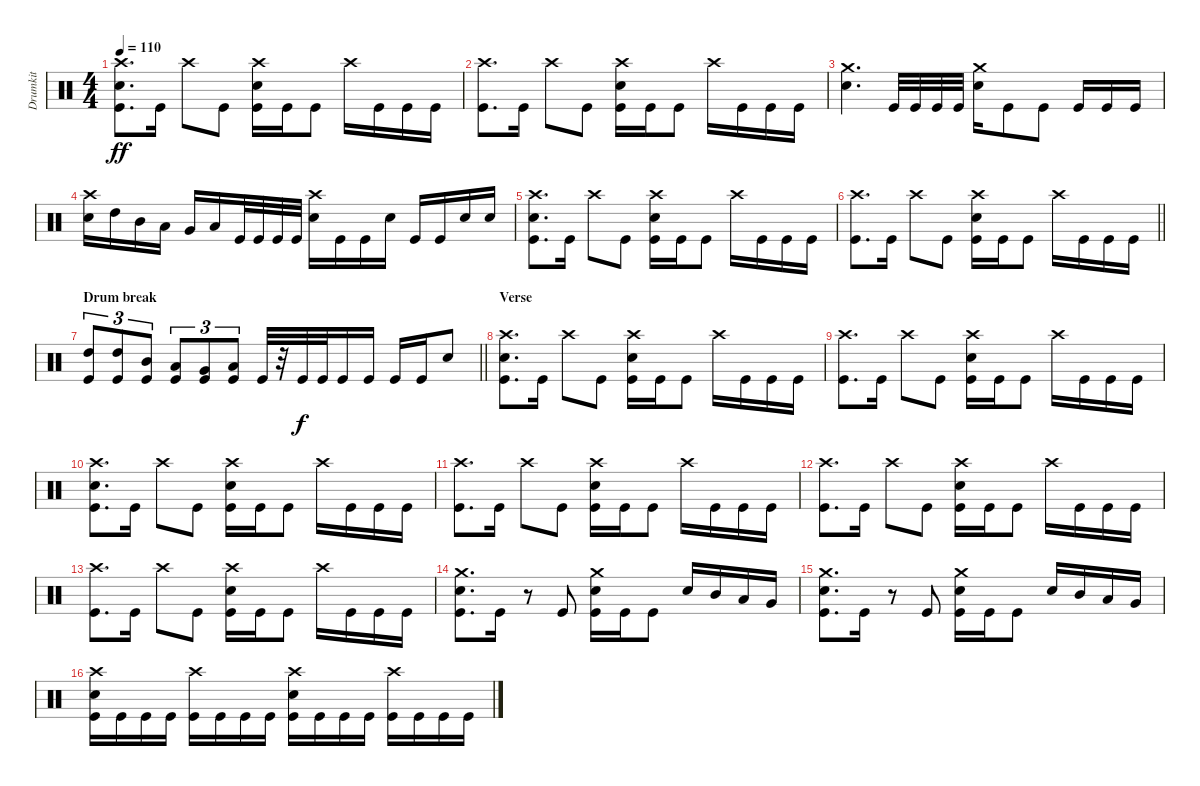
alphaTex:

\track ("Drumkit" "Drumkit") {instrument percussion}
\staff {score}
\articulation defaults
\ts (4 4)
\tempo 110
\clef neutral
\ks c
("Crash high (hit)" "Snare (hit) 2" "Kick (hit)").8{d dy ff} "Kick (hit)".16 "Crash high (hit)".8 "Kick (hit)".8 ("Crash high (hit)" "Snare (hit) 2" "Kick (hit)").16 "Kick (hit)".16 "Kick (hit)".8 "Crash high (hit)".16 "Kick (hit)".16 "Kick (hit)".16 "Kick (hit)".16 |
("Crash high (hit)" "Kick (hit)").8{d} "Kick (hit)".16 "Crash high (hit)".8 "Kick (hit)".8 ("Crash high (hit)" "Snare (hit) 2" "Kick (hit)").16 "Kick (hit)".16 "Kick (hit)".8 "Crash high (hit)".16 "Kick (hit)".16 "Kick (hit)".16 "Kick (hit)".16 |
("Crash medium (hit)" "Snare (hit) 2").4{d} "Kick (hit)".32 "Kick (hit)".32 "Kick (hit)".32 "Kick (hit)".32 ("Crash medium (hit)" "Snare (hit) 2").16 "Kick (hit)".8 "Kick (hit)".8 "Kick (hit)".16 "Kick (hit)".16 "Kick (hit)".16 |
("Crash high (hit)" "Snare (hit) 2").16 "High Tom (hit)".16 "Mid Tom (hit)".16 "Low Tom (hit)".16 "Very Low Tom (hit)".16 "Low Floor Tom (hit)".16 "Kick (hit)".32 "Kick (hit)".32 "Kick (hit)".32 "Kick (hit)".32 ("Crash high (hit)" "Snare (hit) 2").16 "Kick (hit)".16 "Kick (hit)".16 "Snare (hit) 2".16 "Kick (hit)".16 "Kick (hit)".16 "Snare (hit) 2".16 "Snare (hit) 2".16 |
("Crash high (hit)" "Snare (hit) 2" "Kick (hit)").8{d} "Kick (hit)".16 "Crash high (hit)".8 "Kick (hit)".8 ("Crash high (hit)" "Snare (hit) 2" "Kick (hit)").16 "Kick (hit)".16 "Kick (hit)".8 "Crash high (hit)".16 "Kick (hit)".16 "Kick (hit)".16 "Kick (hit)".16 |
\barLineRight lightlight
("Crash high (hit)" "Kick (hit)").8{d} "Kick (hit)".16 "Crash high (hit)".8 "Kick (hit)".8 ("Crash high (hit)" "Snare (hit) 2" "Kick (hit)").16 "Kick (hit)".16 "Kick (hit)".8 "Crash high (hit)".16 "Kick (hit)".16 "Kick (hit)".16 "Kick (hit)".16 |
\section ("" "Drum break")
\barLineRight lightlight
("High Tom (hit)" "Kick (hit)").8{tu (3 2)} ("High Tom (hit)" "Kick (hit)").8{tu (3 2)} ("Mid Tom (hit)" "Kick (hit)").8{tu (3 2)} ("Low Tom (hit)" "Kick (hit)").8{tu (3 2)} ("Very Low Tom (hit)" "Kick (hit)").8{tu (3 2)} ("Low Floor Tom (hit)" "Kick (hit)").8{tu (3 2)} "Kick (hit)".32 r.32 "Kick (hit)".32{dy f} "Kick (hit)".32 "Kick (hit)".16 "Kick (hit)".16 "Kick (hit)".16 "Kick (hit)".16 "Snare (hit) 2".8 |
\section ("" "Verse")
("Crash high (hit)" "Snare (hit) 2" "Kick (hit)").8{d} "Kick (hit)".16 "Crash high (hit)".8 "Kick (hit)".8 ("Crash high (hit)" "Snare (hit) 2" "Kick (hit)").16 "Kick (hit)".16 "Kick (hit)".8 "Crash high (hit)".16 "Kick (hit)".16 "Kick (hit)".16 "Kick (hit)".16 |
("Crash high (hit)" "Kick (hit)").8{d} "Kick (hit)".16 "Crash high (hit)".8 "Kick (hit)".8 ("Crash high (hit)" "Snare (hit) 2" "Kick (hit)").16 "Kick (hit)".16 "Kick (hit)".8 "Crash high (hit)".16 "Kick (hit)".16 "Kick (hit)".16 "Kick (hit)".16 |
("Crash high (hit)" "Snare (hit) 2" "Kick (hit)").8{d} "Kick (hit)".16 "Crash high (hit)".8 "Kick (hit)".8 ("Crash high (hit)" "Snare (hit) 2" "Kick (hit)").16 "Kick (hit)".16 "Kick (hit)".8 "Crash high (hit)".16 "Kick (hit)".16 "Kick (hit)".16 "Kick (hit)".16 |
("Crash high (hit)" "Kick (hit)").8{d} "Kick (hit)".16 "Crash high (hit)".8 "Kick (hit)".8 ("Crash high (hit)" "Snare (hit) 2" "Kick (hit)").16 "Kick (hit)".16 "Kick (hit)".8 "Crash high (hit)".16 "Kick (hit)".16 "Kick (hit)".16 "Kick (hit)".16 |
("Crash high (hit)" "Kick (hit)").8{d} "Kick (hit)".16 "Crash high (hit)".8 "Kick (hit)".8 ("Crash high (hit)" "Snare (hit) 2" "Kick (hit)").16 "Kick (hit)".16 "Kick (hit)".8 "Crash high (hit)".16 "Kick (hit)".16 "Kick (hit)".16 "Kick (hit)".16 |
("Crash high (hit)" "Kick (hit)").8{d} "Kick (hit)".16 "Crash high (hit)".8 "Kick (hit)".8 ("Crash high (hit)" "Snare (hit) 2" "Kick (hit)").16 "Kick (hit)".16 "Kick (hit)".8 "Crash high (hit)".16 "Kick (hit)".16 "Kick (hit)".16 "Kick (hit)".16 |
("Crash medium (hit)" "Snare (hit) 2" "Kick (hit)").8{d} "Kick (hit)".16 r.8 "Kick (hit)".8 ("Crash medium (hit)" "Snare (hit) 2" "Kick (hit)").16 "Kick (hit)".16 "Kick (hit)".8 "Snare (hit) 2".16 "Mid Tom (hit)".16 "Low Tom (hit)".16 "Very Low Tom (hit)".16 |
("Crash medium (hit)" "Snare (hit) 2" "Kick (hit)").8{d} "Kick (hit)".16 r.8 "Kick (hit)".8 ("Crash medium (hit)" "Snare (hit) 2" "Kick (hit)").16 "Kick (hit)".16 "Kick (hit)".8 "Snare (hit) 2".16 "Mid Tom (hit)".16 "Low Tom (hit)".16 "Very Low Tom (hit)".16 |
("Crash high (hit)" "Snare (hit) 2" "Kick (hit)").16 "Kick (hit)".16 "Kick (hit)".16 "Kick (hit)".16 ("Crash high (hit)" "Kick (hit)").16 "Kick (hit)".16 "Kick (hit)".16 "Kick (hit)".16 ("Crash high (hit)" "Snare (hit) 2" "Kick (hit)").16 "Kick (hit)".16 "Kick (hit)".16 "Kick (hit)".16 ("Crash high (hit)" "Kick (hit)").16 "Kick (hit)".16 "Kick (hit)".16 "Kick (hit)".16
